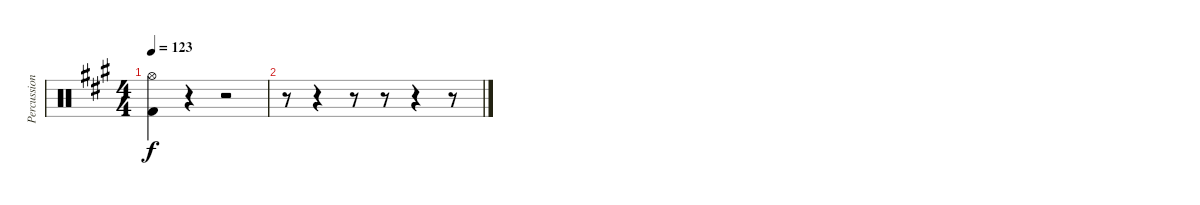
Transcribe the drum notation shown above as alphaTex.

\track ("Percussion" "Percussion") {instrument percussion}
\staff {score}
\articulation defaults
\ts (4 4)
\tempo 123
\clef neutral
\ks a
("Hi-Hat (open)" "Kick (hit) 2").4{dy f} r.4 r.2 |
r.8 r.4 r.8 r.8 r.4 r.8
